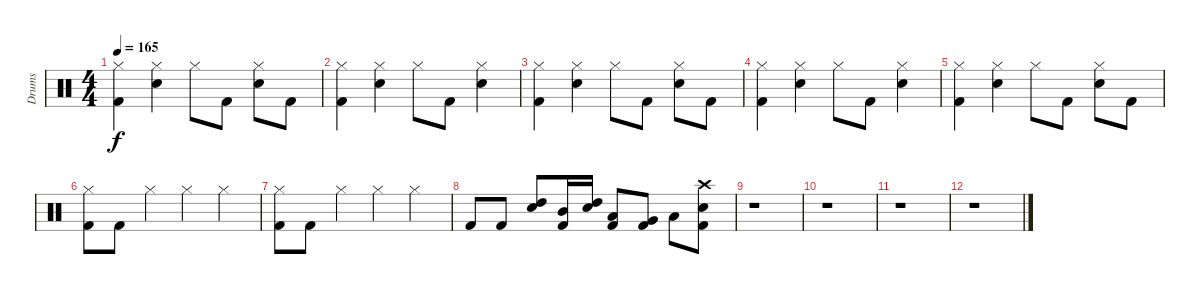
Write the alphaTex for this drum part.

\track ("Drums" "Drums") {instrument percussion}
\staff {score}
\articulation defaults
\ts (4 4)
\tempo 165
\clef neutral
\ks c
("Hi-Hat (closed)" "Kick (hit) 2").4{dy f} ("Hi-Hat (closed)" "Snare (hit) 2").4 "Hi-Hat (closed)".8 "Kick (hit) 2".8 ("Hi-Hat (closed)" "Snare (hit) 2").8 "Kick (hit) 2".8 |
("Hi-Hat (closed)" "Kick (hit) 2").4 ("Hi-Hat (closed)" "Snare (hit) 2").4 "Hi-Hat (closed)".8 "Kick (hit) 2".8 ("Hi-Hat (closed)" "Snare (hit) 2").4 |
("Hi-Hat (closed)" "Kick (hit) 2").4 ("Hi-Hat (closed)" "Snare (hit) 2").4 "Hi-Hat (closed)".8 "Kick (hit) 2".8 ("Hi-Hat (closed)" "Snare (hit) 2").8 "Kick (hit) 2".8 |
("Hi-Hat (closed)" "Kick (hit) 2").4 ("Hi-Hat (closed)" "Snare (hit) 2").4 "Hi-Hat (closed)".8 "Kick (hit) 2".8 ("Hi-Hat (closed)" "Snare (hit) 2").4 |
("Hi-Hat (closed)" "Kick (hit) 2").4 ("Hi-Hat (closed)" "Snare (hit) 2").4 "Hi-Hat (closed)".8 "Kick (hit) 2".8 ("Hi-Hat (closed)" "Snare (hit) 2").8 "Kick (hit) 2".8 |
("Hi-Hat (closed)" "Kick (hit) 2").8 "Kick (hit) 2".8 "Hi-Hat (closed)".4 "Hi-Hat (closed)".4 "Hi-Hat (closed)".4 |
("Hi-Hat (closed)" "Kick (hit) 2").8 "Kick (hit) 2".8 "Hi-Hat (closed)".4 "Hi-Hat (closed)".4 "Hi-Hat (closed)".4 |
"Kick (hit) 2".8 "Kick (hit) 2".8 ("Snare (hit) 2" "High Tom (hit)").8 ("Mid Tom (hit)" "Kick (hit) 2").16 ("Snare (hit) 2" "High Tom (hit)").16 ("Low Tom (hit)" "Kick (hit) 2").8 ("Very Low Tom (hit)" "Kick (hit) 2").8 "Low Floor Tom (hit)".8 ("Crash high (hit)" "Snare (hit) 2" "Kick (hit) 2").8 |
r.1 |
r.1 |
r.1 |
r.1
